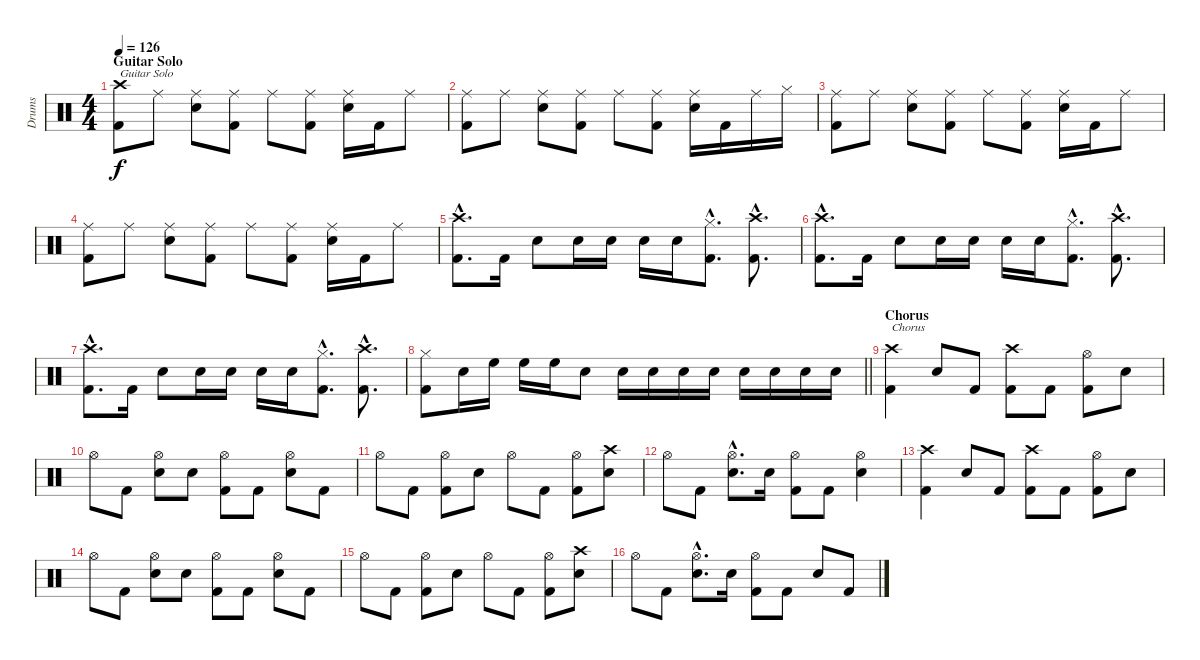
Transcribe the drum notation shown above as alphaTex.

\track ("Drums" "Drums") {instrument percussion}
\staff {score}
\articulation defaults
\ts (4 4)
\section ("" "Guitar Solo")
\tempo 126
\clef neutral
\ks c
("Crash high (hit)" "Kick (hit) 2").8{txt "Guitar Solo" dy f} "Ride (middle)".8 ("Ride (middle)" "Electric Snare (hit)").8 ("Ride (middle)" "Kick (hit) 2").8 "Ride (middle)".8 ("Ride (middle)" "Kick (hit) 2").8 ("Ride (middle)" "Electric Snare (hit)").16 "Kick (hit) 2".16 "Ride (middle)".8 |
("Ride (middle)" "Kick (hit) 2").8 "Ride (middle)".8 ("Ride (middle)" "Electric Snare (hit)").8 ("Ride (middle)" "Kick (hit) 2").8 "Ride (middle)".8 ("Ride (middle)" "Kick (hit) 2").8 ("Ride (middle)" "Electric Snare (hit)").16 "Kick (hit) 2".16 "Ride (middle)".16 "Hi-Hat (closed)".16 |
("Ride (middle)" "Kick (hit) 2").8 "Ride (middle)".8 ("Ride (middle)" "Electric Snare (hit)").8 ("Ride (middle)" "Kick (hit) 2").8 "Ride (middle)".8 ("Ride (middle)" "Kick (hit) 2").8 ("Ride (middle)" "Electric Snare (hit)").16 "Kick (hit) 2".16 "Ride (middle)".8 |
("Ride (middle)" "Kick (hit) 2").8 "Ride (middle)".8 ("Ride (middle)" "Electric Snare (hit)").8 ("Ride (middle)" "Kick (hit) 2").8 "Ride (middle)".8 ("Ride (middle)" "Kick (hit) 2").8 ("Ride (middle)" "Electric Snare (hit)").16 "Kick (hit) 2".16 "Ride (middle)".8 |
("Crash high (hit)"{hac} "Kick (hit) 2"{hac}).8{d} "Kick (hit) 2".16 "Electric Snare (hit)".8 "Electric Snare (hit)".16 "Electric Snare (hit)".16 "Electric Snare (hit)".16 "Electric Snare (hit)".16 ("Hi-Hat (closed)"{hac} "Kick (hit) 2"{hac}).8{d} ("Crash high (hit)"{hac} "Kick (hit) 2"{hac}).8{d} |
("Crash high (hit)"{hac} "Kick (hit) 2"{hac}).8{d} "Kick (hit) 2".16 "Electric Snare (hit)".8 "Electric Snare (hit)".16 "Electric Snare (hit)".16 "Electric Snare (hit)".16 "Electric Snare (hit)".16 ("Hi-Hat (closed)"{hac} "Kick (hit) 2"{hac}).8{d} ("Crash high (hit)"{hac} "Kick (hit) 2"{hac}).8{d} |
("Crash high (hit)"{hac} "Kick (hit) 2"{hac}).8{d} "Kick (hit) 2".16 "Electric Snare (hit)".8 "Electric Snare (hit)".16 "Electric Snare (hit)".16 "Electric Snare (hit)".16 "Electric Snare (hit)".16 ("Hi-Hat (closed)"{hac} "Kick (hit) 2"{hac}).8{d} ("Crash high (hit)"{hac} "Kick (hit) 2"{hac}).8{d} |
\barLineRight lightlight
("Hi-Hat (closed)" "Kick (hit) 2").8 "Electric Snare (hit)".16 "High Floor Tom (hit)".16 "High Floor Tom (hit)".16 "High Floor Tom (hit)".16 "Electric Snare (hit)".8 "Electric Snare (hit)".16 "Electric Snare (hit)".16 "Electric Snare (hit)".16 "Electric Snare (hit)".16 "Electric Snare (hit)".16 "Electric Snare (hit)".16 "Electric Snare (hit)".16 "Electric Snare (hit)".16 |
\section ("" "Chorus")
("Crash high (hit)" "Kick (hit) 2").4{txt "Chorus"} "Electric Snare (hit)".8 "Kick (hit) 2".8 ("Crash high (hit)" "Kick (hit) 2").8 "Kick (hit) 2".8 ("Hi-Hat (open)" "Kick (hit) 2").8 "Electric Snare (hit)".8 |
"Hi-Hat (open)".8 "Kick (hit) 2".8 ("Hi-Hat (open)" "Electric Snare (hit)").8 "Electric Snare (hit)".8 ("Hi-Hat (open)" "Kick (hit) 2").8 "Kick (hit) 2".8 ("Hi-Hat (open)" "Electric Snare (hit)").8 "Kick (hit) 2".8 |
"Hi-Hat (open)".8 "Kick (hit) 2".8 ("Hi-Hat (open)" "Kick (hit) 2").8 "Electric Snare (hit)".8 "Hi-Hat (open)".8 "Kick (hit) 2".8 ("Hi-Hat (open)" "Kick (hit) 2").8 ("Crash high (hit)" "Electric Snare (hit)").8 |
"Hi-Hat (open)".8 "Kick (hit) 2".8 ("Hi-Hat (open)"{hac} "Electric Snare (hit)"{hac}).8{d} "Electric Snare (hit)".16 ("Hi-Hat (open)" "Kick (hit) 2").8 "Kick (hit) 2".8 ("Hi-Hat (open)" "Electric Snare (hit)").4 |
("Crash high (hit)" "Kick (hit) 2").4 "Electric Snare (hit)".8 "Kick (hit) 2".8 ("Crash high (hit)" "Kick (hit) 2").8 "Kick (hit) 2".8 ("Hi-Hat (open)" "Kick (hit) 2").8 "Electric Snare (hit)".8 |
"Hi-Hat (open)".8 "Kick (hit) 2".8 ("Hi-Hat (open)" "Electric Snare (hit)").8 "Electric Snare (hit)".8 ("Hi-Hat (open)" "Kick (hit) 2").8 "Kick (hit) 2".8 ("Hi-Hat (open)" "Electric Snare (hit)").8 "Kick (hit) 2".8 |
"Hi-Hat (open)".8 "Kick (hit) 2".8 ("Hi-Hat (open)" "Kick (hit) 2").8 "Electric Snare (hit)".8 "Hi-Hat (open)".8 "Kick (hit) 2".8 ("Hi-Hat (open)" "Kick (hit) 2").8 ("Crash high (hit)" "Electric Snare (hit)").8 |
"Hi-Hat (open)".8 "Kick (hit) 2".8 ("Hi-Hat (open)"{hac} "Electric Snare (hit)"{hac}).8{d} "Electric Snare (hit)".16 ("Hi-Hat (open)" "Kick (hit) 2").8 "Kick (hit) 2".8 "Electric Snare (hit)".8 "Kick (hit) 2".8
